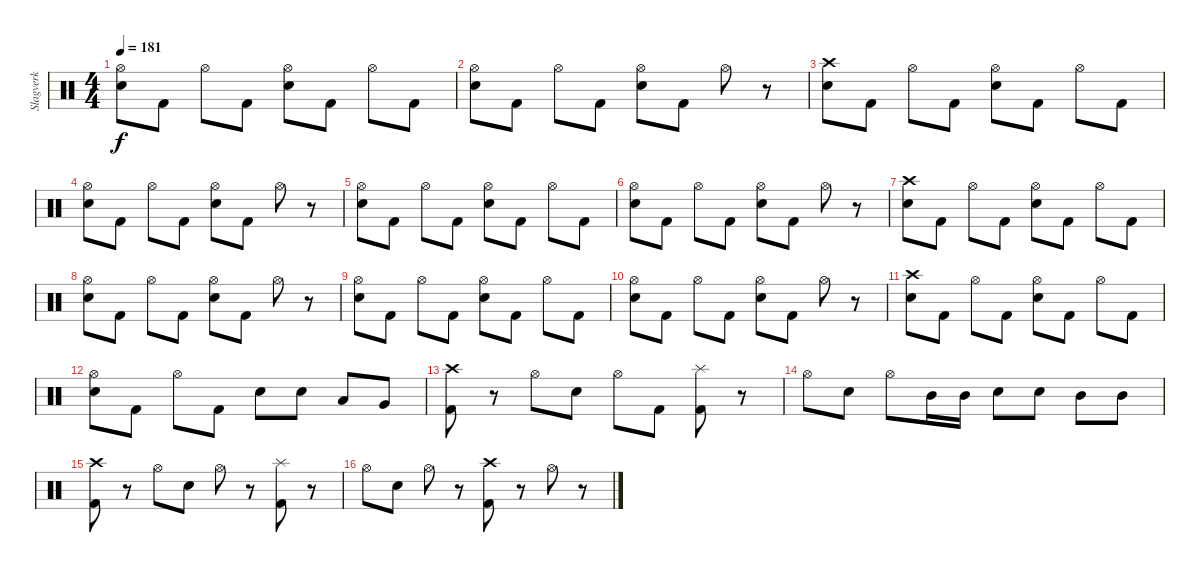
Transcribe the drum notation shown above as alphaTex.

\track ("Slagverk" "Slagverk") {instrument percussion}
\staff {score}
\articulation defaults
\ts (4 4)
\tempo 181
\clef neutral
\ks c
("Hi-Hat (open)" "Electric Snare (hit)").8{dy f volume 16 balance 8} "Kick (hit) 2".8 "Hi-Hat (open)".8 "Kick (hit) 2".8 ("Hi-Hat (open)" "Electric Snare (hit)").8 "Kick (hit) 2".8 "Hi-Hat (open)".8 "Kick (hit) 2".8 |
("Hi-Hat (open)" "Electric Snare (hit)").8 "Kick (hit) 2".8 "Hi-Hat (open)".8 "Kick (hit) 2".8 ("Hi-Hat (open)" "Electric Snare (hit)").8 "Kick (hit) 2".8 "Hi-Hat (open)".8 r.8 |
("Crash high (hit)" "Electric Snare (hit)").8{volume 16 balance 8} "Kick (hit) 2".8 "Hi-Hat (open)".8 "Kick (hit) 2".8 ("Hi-Hat (open)" "Electric Snare (hit)").8 "Kick (hit) 2".8 "Hi-Hat (open)".8 "Kick (hit) 2".8 |
("Hi-Hat (open)" "Electric Snare (hit)").8 "Kick (hit) 2".8 "Hi-Hat (open)".8 "Kick (hit) 2".8 ("Hi-Hat (open)" "Electric Snare (hit)").8 "Kick (hit) 2".8 "Hi-Hat (open)".8 r.8 |
("Hi-Hat (open)" "Electric Snare (hit)").8{volume 16 balance 8} "Kick (hit) 2".8 "Hi-Hat (open)".8 "Kick (hit) 2".8 ("Hi-Hat (open)" "Electric Snare (hit)").8 "Kick (hit) 2".8 "Hi-Hat (open)".8 "Kick (hit) 2".8 |
("Hi-Hat (open)" "Electric Snare (hit)").8 "Kick (hit) 2".8 "Hi-Hat (open)".8 "Kick (hit) 2".8 ("Hi-Hat (open)" "Electric Snare (hit)").8 "Kick (hit) 2".8 "Hi-Hat (open)".8 r.8 |
("Crash high (hit)" "Electric Snare (hit)").8{volume 16 balance 8} "Kick (hit) 2".8 "Hi-Hat (open)".8 "Kick (hit) 2".8 ("Hi-Hat (open)" "Electric Snare (hit)").8 "Kick (hit) 2".8 "Hi-Hat (open)".8 "Kick (hit) 2".8 |
("Hi-Hat (open)" "Electric Snare (hit)").8 "Kick (hit) 2".8 "Hi-Hat (open)".8 "Kick (hit) 2".8 ("Hi-Hat (open)" "Electric Snare (hit)").8 "Kick (hit) 2".8 "Hi-Hat (open)".8 r.8 |
("Hi-Hat (open)" "Electric Snare (hit)").8{volume 16 balance 8} "Kick (hit) 2".8 "Hi-Hat (open)".8 "Kick (hit) 2".8 ("Hi-Hat (open)" "Electric Snare (hit)").8 "Kick (hit) 2".8 "Hi-Hat (open)".8 "Kick (hit) 2".8 |
("Hi-Hat (open)" "Electric Snare (hit)").8 "Kick (hit) 2".8 "Hi-Hat (open)".8 "Kick (hit) 2".8 ("Hi-Hat (open)" "Electric Snare (hit)").8 "Kick (hit) 2".8 "Hi-Hat (open)".8 r.8 |
("Crash high (hit)" "Electric Snare (hit)").8{volume 16 balance 8} "Kick (hit) 2".8 "Hi-Hat (open)".8 "Kick (hit) 2".8 ("Hi-Hat (open)" "Electric Snare (hit)").8 "Kick (hit) 2".8 "Hi-Hat (open)".8 "Kick (hit) 2".8 |
("Hi-Hat (open)" "Electric Snare (hit)").8 "Kick (hit) 2".8 "Hi-Hat (open)".8 "Kick (hit) 2".8 "Electric Snare (hit)".8 "Electric Snare (hit)".8 "Low Tom (hit)".8 "Very Low Tom (hit)".8 |
("Crash high (hit)" "Kick (hit) 2").8 r.8 "Hi-Hat (open)".8 "Electric Snare (hit)".8 "Hi-Hat (open)".8 "Kick (hit) 2".8 ("Kick (hit) 2" "Splash (hit)").8 r.8 |
"Hi-Hat (open)".8 "Electric Snare (hit)".8 "Hi-Hat (open)".8 "Mid Tom (hit)".16 "Mid Tom (hit)".16 "Electric Snare (hit)".8 "Electric Snare (hit)".8 "Mid Tom (hit)".8 "Mid Tom (hit)".8 |
("Crash high (hit)" "Kick (hit) 2").8 r.8 "Hi-Hat (open)".8 "Electric Snare (hit)".8 "Hi-Hat (open)".8 r.8 ("Splash (hit)" "Kick (hit) 2").8 r.8 |
"Hi-Hat (open)".8 "Electric Snare (hit)".8 "Hi-Hat (open)".8 r.8 ("Crash high (hit)" "Kick (hit) 2").8 r.8 "Hi-Hat (open)".8 r.8
